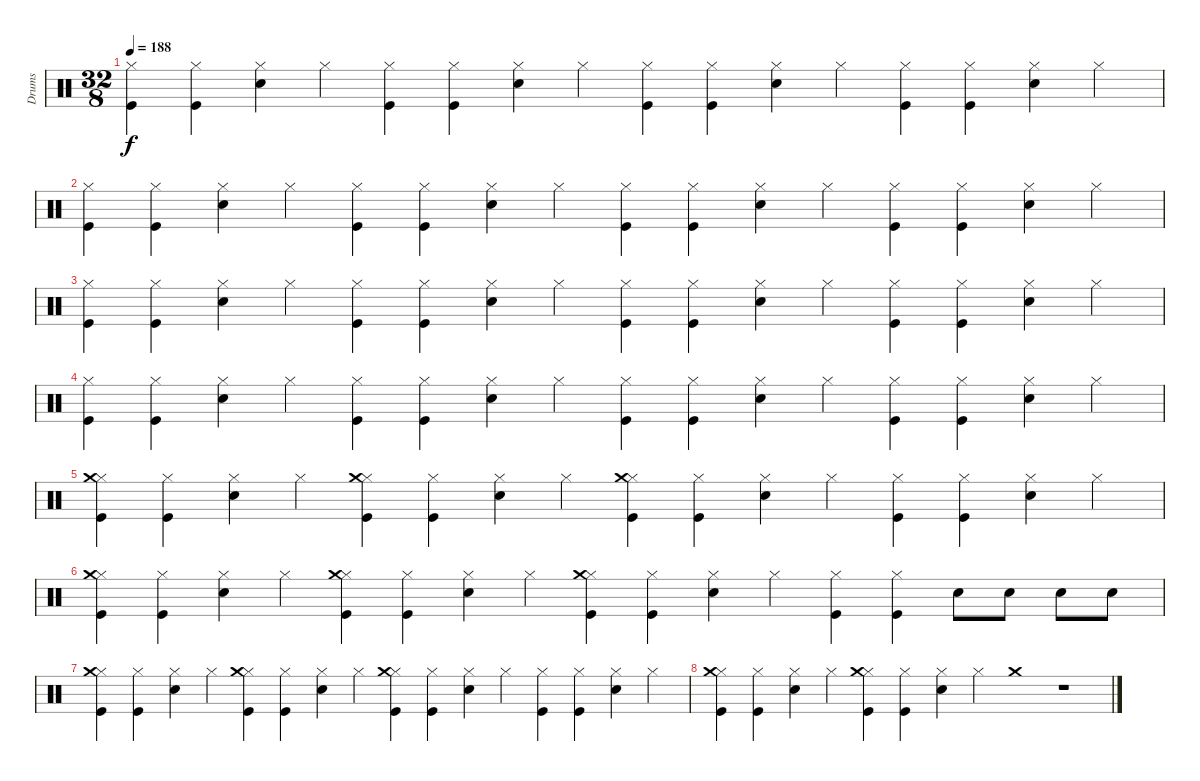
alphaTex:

\track ("Drums" "Drums") {instrument percussion}
\staff {score}
\articulation defaults
\ts (32 8)
\tempo 188
\clef neutral
\ks c
("Kick (hit)" "Hi-Hat (closed)").4{dy f} ("Kick (hit)" "Hi-Hat (closed)").4 ("Snare (hit) 2" "Hi-Hat (closed)").4 "Hi-Hat (closed)".4 ("Kick (hit)" "Hi-Hat (closed)").4 ("Kick (hit)" "Hi-Hat (closed)").4 ("Snare (hit) 2" "Hi-Hat (closed)").4 "Hi-Hat (closed)".4 ("Kick (hit)" "Hi-Hat (closed)").4 ("Kick (hit)" "Hi-Hat (closed)").4 ("Snare (hit) 2" "Hi-Hat (closed)").4 "Hi-Hat (closed)".4 ("Kick (hit)" "Hi-Hat (closed)").4 ("Kick (hit)" "Hi-Hat (closed)").4 ("Snare (hit) 2" "Hi-Hat (closed)").4 "Hi-Hat (closed)".4 |
("Kick (hit)" "Hi-Hat (closed)").4 ("Kick (hit)" "Hi-Hat (closed)").4 ("Snare (hit) 2" "Hi-Hat (closed)").4 "Hi-Hat (closed)".4 ("Kick (hit)" "Hi-Hat (closed)").4 ("Kick (hit)" "Hi-Hat (closed)").4 ("Snare (hit) 2" "Hi-Hat (closed)").4 "Hi-Hat (closed)".4 ("Kick (hit)" "Hi-Hat (closed)").4 ("Kick (hit)" "Hi-Hat (closed)").4 ("Snare (hit) 2" "Hi-Hat (closed)").4 "Hi-Hat (closed)".4 ("Kick (hit)" "Hi-Hat (closed)").4 ("Kick (hit)" "Hi-Hat (closed)").4 ("Snare (hit) 2" "Hi-Hat (closed)").4 "Hi-Hat (closed)".4 |
("Kick (hit)" "Hi-Hat (closed)").4 ("Kick (hit)" "Hi-Hat (closed)").4 ("Snare (hit) 2" "Hi-Hat (closed)").4 "Hi-Hat (closed)".4 ("Kick (hit)" "Hi-Hat (closed)").4 ("Kick (hit)" "Hi-Hat (closed)").4 ("Snare (hit) 2" "Hi-Hat (closed)").4 "Hi-Hat (closed)".4 ("Kick (hit)" "Hi-Hat (closed)").4 ("Kick (hit)" "Hi-Hat (closed)").4 ("Snare (hit) 2" "Hi-Hat (closed)").4 "Hi-Hat (closed)".4 ("Kick (hit)" "Hi-Hat (closed)").4 ("Kick (hit)" "Hi-Hat (closed)").4 ("Snare (hit) 2" "Hi-Hat (closed)").4 "Hi-Hat (closed)".4 |
("Kick (hit)" "Hi-Hat (closed)").4 ("Kick (hit)" "Hi-Hat (closed)").4 ("Snare (hit) 2" "Hi-Hat (closed)").4 "Hi-Hat (closed)".4 ("Kick (hit)" "Hi-Hat (closed)").4 ("Kick (hit)" "Hi-Hat (closed)").4 ("Snare (hit) 2" "Hi-Hat (closed)").4 "Hi-Hat (closed)".4 ("Kick (hit)" "Hi-Hat (closed)").4 ("Kick (hit)" "Hi-Hat (closed)").4 ("Snare (hit) 2" "Hi-Hat (closed)").4 "Hi-Hat (closed)".4 ("Kick (hit)" "Hi-Hat (closed)").4 ("Kick (hit)" "Hi-Hat (closed)").4 ("Snare (hit) 2" "Hi-Hat (closed)").4 "Hi-Hat (closed)".4 |
("Kick (hit)" "Hi-Hat (closed)" "Crash medium (hit)").4 ("Kick (hit)" "Hi-Hat (closed)").4 ("Snare (hit) 2" "Hi-Hat (closed)").4 "Hi-Hat (closed)".4 ("Kick (hit)" "Hi-Hat (closed)" "Crash medium (hit)").4 ("Kick (hit)" "Hi-Hat (closed)").4 ("Snare (hit) 2" "Hi-Hat (closed)").4 "Hi-Hat (closed)".4 ("Kick (hit)" "Hi-Hat (closed)" "Crash medium (hit)").4 ("Kick (hit)" "Hi-Hat (closed)").4 ("Snare (hit) 2" "Hi-Hat (closed)").4 "Hi-Hat (closed)".4 ("Kick (hit)" "Hi-Hat (closed)").4 ("Kick (hit)" "Hi-Hat (closed)").4 ("Snare (hit) 2" "Hi-Hat (closed)").4 "Hi-Hat (closed)".4 |
("Kick (hit)" "Hi-Hat (closed)" "Crash medium (hit)").4 ("Kick (hit)" "Hi-Hat (closed)").4 ("Snare (hit) 2" "Hi-Hat (closed)").4 "Hi-Hat (closed)".4 ("Kick (hit)" "Hi-Hat (closed)" "Crash medium (hit)").4 ("Kick (hit)" "Hi-Hat (closed)").4 ("Snare (hit) 2" "Hi-Hat (closed)").4 "Hi-Hat (closed)".4 ("Kick (hit)" "Hi-Hat (closed)" "Crash medium (hit)").4 ("Kick (hit)" "Hi-Hat (closed)").4 ("Snare (hit) 2" "Hi-Hat (closed)").4 "Hi-Hat (closed)".4 ("Kick (hit)" "Hi-Hat (closed)").4 ("Kick (hit)" "Hi-Hat (closed)").4 "Snare (hit) 2".8 "Snare (hit) 2".8 "Snare (hit) 2".8 "Snare (hit) 2".8 |
("Kick (hit)" "Hi-Hat (closed)" "Crash medium (hit)").4 ("Kick (hit)" "Hi-Hat (closed)").4 ("Snare (hit) 2" "Hi-Hat (closed)").4 "Hi-Hat (closed)".4 ("Kick (hit)" "Hi-Hat (closed)" "Crash medium (hit)").4 ("Kick (hit)" "Hi-Hat (closed)").4 ("Snare (hit) 2" "Hi-Hat (closed)").4 "Hi-Hat (closed)".4 ("Kick (hit)" "Hi-Hat (closed)" "Crash medium (hit)").4 ("Kick (hit)" "Hi-Hat (closed)").4 ("Snare (hit) 2" "Hi-Hat (closed)").4 "Hi-Hat (closed)".4 ("Kick (hit)" "Hi-Hat (closed)").4 ("Kick (hit)" "Hi-Hat (closed)").4 ("Snare (hit) 2" "Hi-Hat (closed)").4 "Hi-Hat (closed)".4 |
("Kick (hit)" "Hi-Hat (closed)" "Crash medium (hit)").4 ("Kick (hit)" "Hi-Hat (closed)").4 ("Snare (hit) 2" "Hi-Hat (closed)").4 "Hi-Hat (closed)".4 ("Kick (hit)" "Hi-Hat (closed)" "Crash medium (hit)").4 ("Kick (hit)" "Hi-Hat (closed)").4 ("Snare (hit) 2" "Hi-Hat (closed)").4 "Hi-Hat (closed)".4 "Crash medium (hit)".1 r.1
